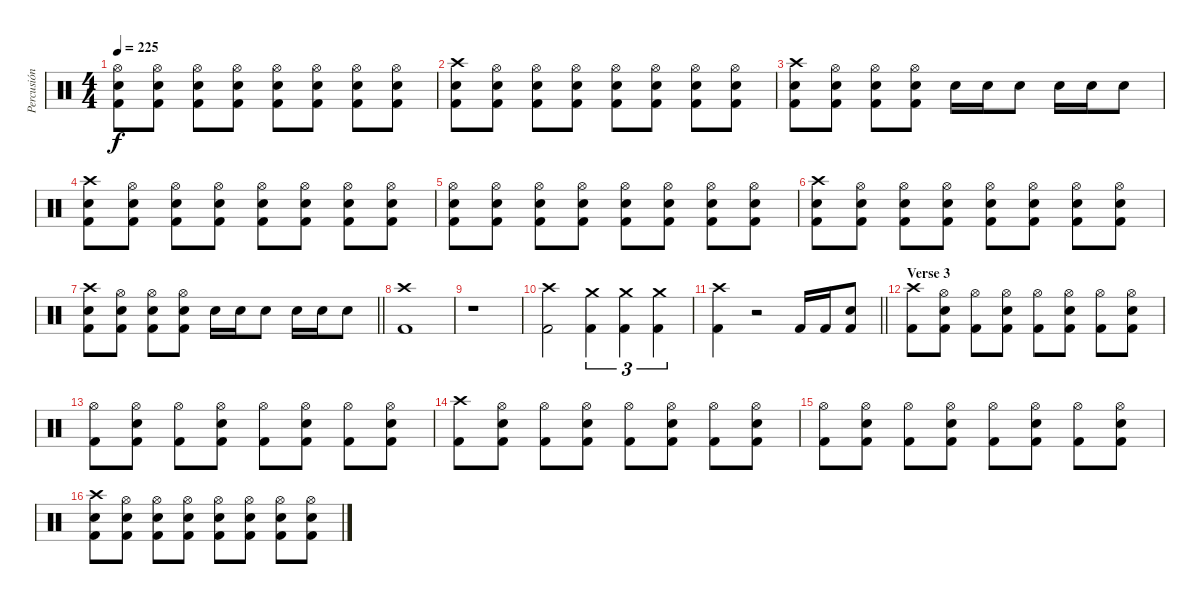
\track ("Percusión" "Percusión") {instrument percussion}
\staff {score}
\articulation defaults
\ts (4 4)
\tempo 225
\clef neutral
\ks c
("Hi-Hat (open)" "Electric Snare (hit)" "Kick (hit) 2").8{dy f} ("Hi-Hat (open)" "Electric Snare (hit)" "Kick (hit) 2").8 ("Hi-Hat (open)" "Electric Snare (hit)" "Kick (hit) 2").8 ("Hi-Hat (open)" "Electric Snare (hit)" "Kick (hit) 2").8 ("Hi-Hat (open)" "Electric Snare (hit)" "Kick (hit) 2").8 ("Hi-Hat (open)" "Electric Snare (hit)" "Kick (hit) 2").8 ("Hi-Hat (open)" "Electric Snare (hit)" "Kick (hit) 2").8 ("Hi-Hat (open)" "Electric Snare (hit)" "Kick (hit) 2").8 |
("Crash high (hit)" "Electric Snare (hit)" "Kick (hit) 2").8 ("Hi-Hat (open)" "Electric Snare (hit)" "Kick (hit) 2").8 ("Hi-Hat (open)" "Electric Snare (hit)" "Kick (hit) 2").8 ("Hi-Hat (open)" "Electric Snare (hit)" "Kick (hit) 2").8 ("Hi-Hat (open)" "Electric Snare (hit)" "Kick (hit) 2").8 ("Hi-Hat (open)" "Electric Snare (hit)" "Kick (hit) 2").8 ("Hi-Hat (open)" "Electric Snare (hit)" "Kick (hit) 2").8 ("Hi-Hat (open)" "Electric Snare (hit)" "Kick (hit) 2").8 |
("Crash high (hit)" "Electric Snare (hit)" "Kick (hit) 2").8 ("Hi-Hat (open)" "Electric Snare (hit)" "Kick (hit) 2").8 ("Hi-Hat (open)" "Electric Snare (hit)" "Kick (hit) 2").8 ("Hi-Hat (open)" "Electric Snare (hit)" "Kick (hit) 2").8 "Electric Snare (hit)".16 "Electric Snare (hit)".16 "Electric Snare (hit)".8 "Electric Snare (hit)".16 "Electric Snare (hit)".16 "Electric Snare (hit)".8 |
("Crash high (hit)" "Electric Snare (hit)" "Kick (hit) 2").8 ("Hi-Hat (open)" "Electric Snare (hit)" "Kick (hit) 2").8 ("Hi-Hat (open)" "Electric Snare (hit)" "Kick (hit) 2").8 ("Hi-Hat (open)" "Electric Snare (hit)" "Kick (hit) 2").8 ("Hi-Hat (open)" "Electric Snare (hit)" "Kick (hit) 2").8 ("Hi-Hat (open)" "Electric Snare (hit)" "Kick (hit) 2").8 ("Hi-Hat (open)" "Electric Snare (hit)" "Kick (hit) 2").8 ("Hi-Hat (open)" "Electric Snare (hit)" "Kick (hit) 2").8 |
("Hi-Hat (open)" "Electric Snare (hit)" "Kick (hit) 2").8 ("Hi-Hat (open)" "Electric Snare (hit)" "Kick (hit) 2").8 ("Hi-Hat (open)" "Electric Snare (hit)" "Kick (hit) 2").8 ("Hi-Hat (open)" "Electric Snare (hit)" "Kick (hit) 2").8 ("Hi-Hat (open)" "Electric Snare (hit)" "Kick (hit) 2").8 ("Hi-Hat (open)" "Electric Snare (hit)" "Kick (hit) 2").8 ("Hi-Hat (open)" "Electric Snare (hit)" "Kick (hit) 2").8 ("Hi-Hat (open)" "Electric Snare (hit)" "Kick (hit) 2").8 |
("Crash high (hit)" "Electric Snare (hit)" "Kick (hit) 2").8 ("Hi-Hat (open)" "Electric Snare (hit)" "Kick (hit) 2").8 ("Hi-Hat (open)" "Electric Snare (hit)" "Kick (hit) 2").8 ("Hi-Hat (open)" "Electric Snare (hit)" "Kick (hit) 2").8 ("Hi-Hat (open)" "Electric Snare (hit)" "Kick (hit) 2").8 ("Hi-Hat (open)" "Electric Snare (hit)" "Kick (hit) 2").8 ("Hi-Hat (open)" "Electric Snare (hit)" "Kick (hit) 2").8 ("Hi-Hat (open)" "Electric Snare (hit)" "Kick (hit) 2").8 |
\barLineRight lightlight
("Crash high (hit)" "Electric Snare (hit)" "Kick (hit) 2").8 ("Hi-Hat (open)" "Electric Snare (hit)" "Kick (hit) 2").8 ("Hi-Hat (open)" "Electric Snare (hit)" "Kick (hit) 2").8 ("Hi-Hat (open)" "Electric Snare (hit)" "Kick (hit) 2").8 "Electric Snare (hit)".16 "Electric Snare (hit)".16 "Electric Snare (hit)".8 "Electric Snare (hit)".16 "Electric Snare (hit)".16 "Electric Snare (hit)".8 |
("Crash high (hit)" "Kick (hit) 2").1 |
r.1 |
("Crash high (hit)" "Kick (hit) 2").2 ("Crash medium (hit)" "Kick (hit) 2").4{tu (3 2)} ("Crash medium (hit)" "Kick (hit) 2").4{tu (3 2)} ("Crash medium (hit)" "Kick (hit) 2").4{tu (3 2)} |
\barLineRight lightlight
("Crash high (hit)" "Kick (hit) 2").4 r.2 "Kick (hit) 2".16 "Kick (hit) 2".16 ("Electric Snare (hit)" "Kick (hit) 2").8 |
\section ("" "Verse 3")
("Crash high (hit)" "Kick (hit) 2").8 ("Hi-Hat (open)" "Electric Snare (hit)" "Kick (hit) 2").8 ("Hi-Hat (open)" "Kick (hit) 2").8 ("Hi-Hat (open)" "Electric Snare (hit)" "Kick (hit) 2").8 ("Hi-Hat (open)" "Kick (hit) 2").8 ("Hi-Hat (open)" "Electric Snare (hit)" "Kick (hit) 2").8 ("Hi-Hat (open)" "Kick (hit) 2").8 ("Hi-Hat (open)" "Electric Snare (hit)" "Kick (hit) 2").8 |
("Hi-Hat (open)" "Kick (hit) 2").8 ("Hi-Hat (open)" "Electric Snare (hit)" "Kick (hit) 2").8 ("Hi-Hat (open)" "Kick (hit) 2").8 ("Hi-Hat (open)" "Electric Snare (hit)" "Kick (hit) 2").8 ("Hi-Hat (open)" "Kick (hit) 2").8 ("Hi-Hat (open)" "Electric Snare (hit)" "Kick (hit) 2").8 ("Hi-Hat (open)" "Kick (hit) 2").8 ("Hi-Hat (open)" "Electric Snare (hit)" "Kick (hit) 2").8 |
("Crash high (hit)" "Kick (hit) 2").8 ("Hi-Hat (open)" "Electric Snare (hit)" "Kick (hit) 2").8 ("Hi-Hat (open)" "Kick (hit) 2").8 ("Hi-Hat (open)" "Electric Snare (hit)" "Kick (hit) 2").8 ("Hi-Hat (open)" "Kick (hit) 2").8 ("Hi-Hat (open)" "Electric Snare (hit)" "Kick (hit) 2").8 ("Hi-Hat (open)" "Kick (hit) 2").8 ("Hi-Hat (open)" "Electric Snare (hit)" "Kick (hit) 2").8 |
("Hi-Hat (open)" "Kick (hit) 2").8 ("Hi-Hat (open)" "Electric Snare (hit)" "Kick (hit) 2").8 ("Hi-Hat (open)" "Kick (hit) 2").8 ("Hi-Hat (open)" "Electric Snare (hit)" "Kick (hit) 2").8 ("Hi-Hat (open)" "Kick (hit) 2").8 ("Hi-Hat (open)" "Electric Snare (hit)" "Kick (hit) 2").8 ("Hi-Hat (open)" "Kick (hit) 2").8 ("Hi-Hat (open)" "Electric Snare (hit)" "Kick (hit) 2").8 |
("Crash high (hit)" "Electric Snare (hit)" "Kick (hit) 2").8 ("Hi-Hat (open)" "Electric Snare (hit)" "Kick (hit) 2").8 ("Hi-Hat (open)" "Electric Snare (hit)" "Kick (hit) 2").8 ("Hi-Hat (open)" "Electric Snare (hit)" "Kick (hit) 2").8 ("Hi-Hat (open)" "Electric Snare (hit)" "Kick (hit) 2").8 ("Hi-Hat (open)" "Electric Snare (hit)" "Kick (hit) 2").8 ("Hi-Hat (open)" "Electric Snare (hit)" "Kick (hit) 2").8 ("Hi-Hat (open)" "Electric Snare (hit)" "Kick (hit) 2").8
